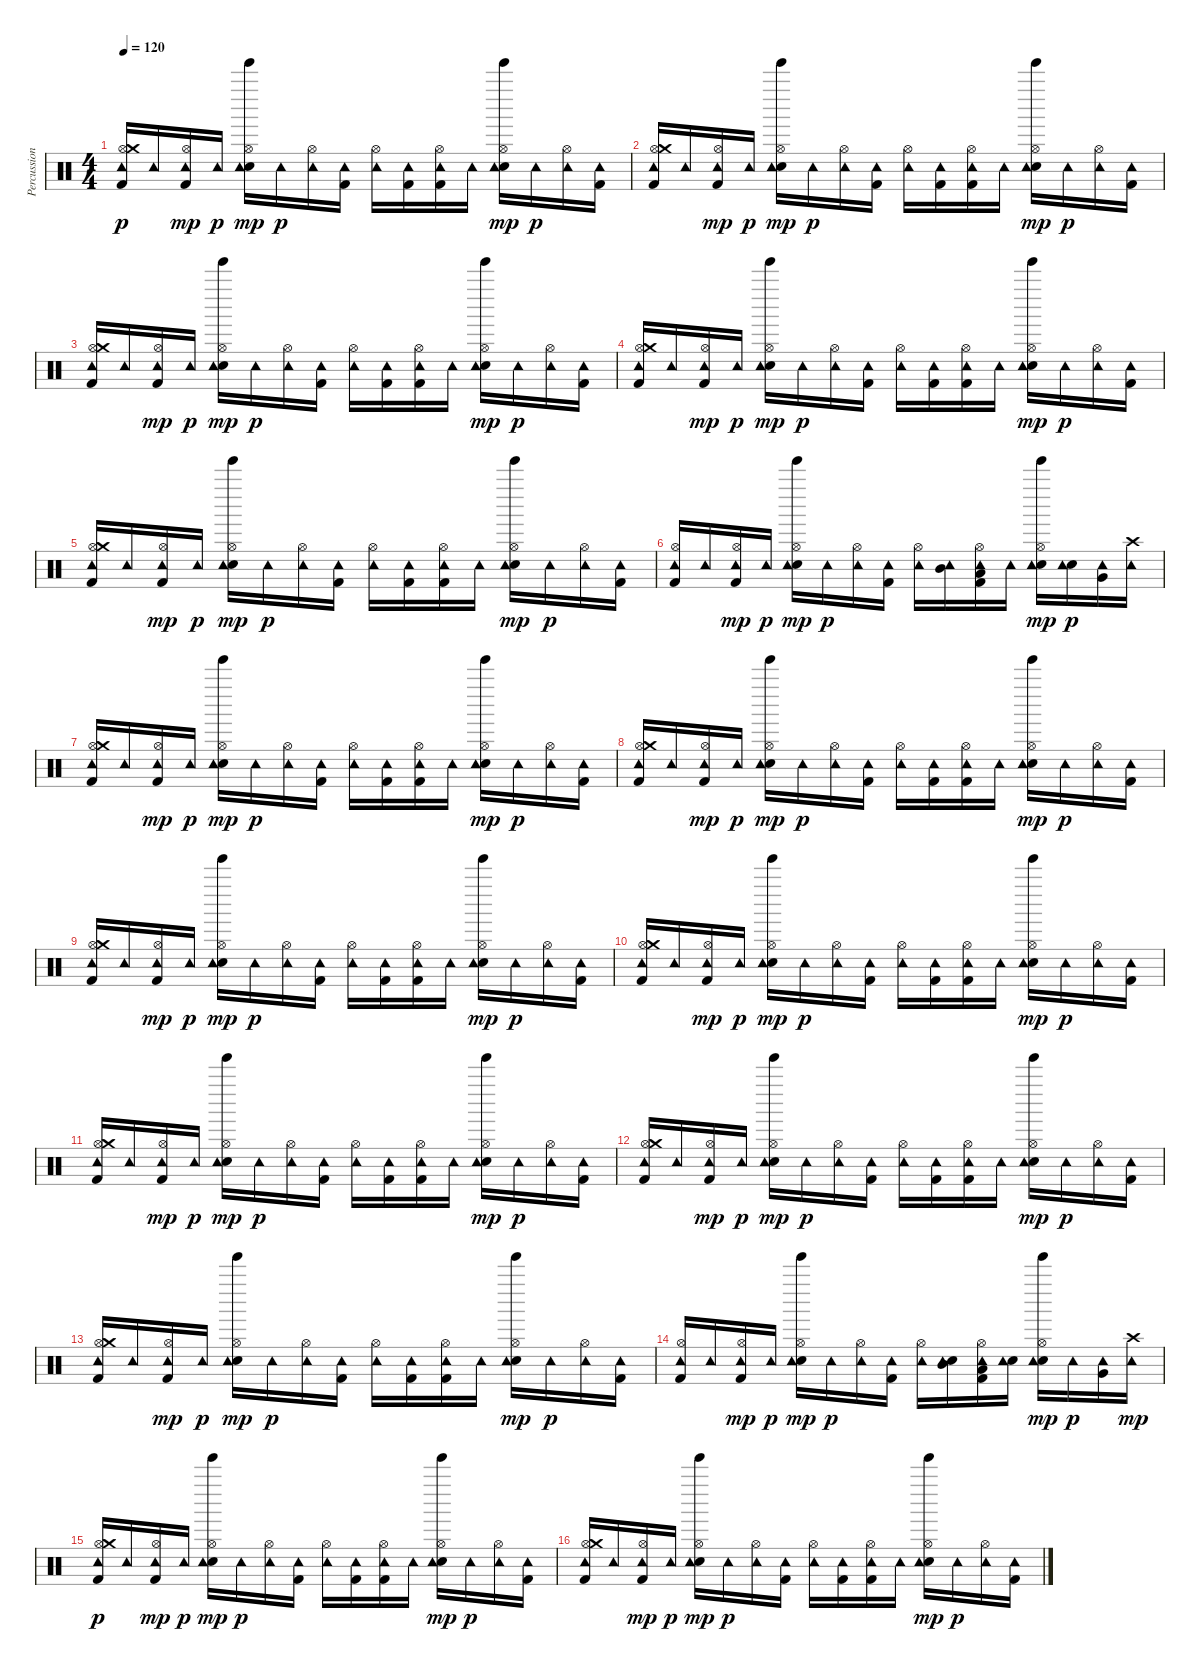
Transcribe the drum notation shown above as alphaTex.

\track ("Percussioni" "Percussion") {instrument percussion}
\staff {score}
\articulation defaults
\ts (4 4)
\tempo 120
\clef neutral
\ks c
("Kick (hit) 2" "Hi-Hat (open)" "Crash medium (hit)" "Tambourine (hit)").16{dy p} "Tambourine (hit)".16 ("Kick (hit) 2" "Hi-Hat (open)" "Tambourine (hit)").16{dy mp} "Tambourine (hit)".16{dy p} ("Electric Snare (hit)" "Hi-Hat (open)" "Tambourine (hit)" "Tinkle Bell (hit)").16{dy mp} "Tambourine (hit)".16{dy p} ("Hi-Hat (open)" "Tambourine (hit)").16 ("Kick (hit) 2" "Tambourine (hit)").16 ("Hi-Hat (open)" "Tambourine (hit)").16 ("Kick (hit) 2" "Tambourine (hit)").16 ("Kick (hit) 2" "Hi-Hat (open)" "Tambourine (hit)").16 "Tambourine (hit)".16 ("Electric Snare (hit)" "Hi-Hat (open)" "Tambourine (hit)" "Tinkle Bell (hit)").16{dy mp} "Tambourine (hit)".16{dy p} ("Hi-Hat (open)" "Tambourine (hit)").16 ("Kick (hit) 2" "Tambourine (hit)").16 |
("Kick (hit) 2" "Hi-Hat (open)" "Crash medium (hit)" "Tambourine (hit)").16 "Tambourine (hit)".16 ("Kick (hit) 2" "Hi-Hat (open)" "Tambourine (hit)").16{dy mp} "Tambourine (hit)".16{dy p} ("Electric Snare (hit)" "Hi-Hat (open)" "Tambourine (hit)" "Tinkle Bell (hit)").16{dy mp} "Tambourine (hit)".16{dy p} ("Hi-Hat (open)" "Tambourine (hit)").16 ("Kick (hit) 2" "Tambourine (hit)").16 ("Hi-Hat (open)" "Tambourine (hit)").16 ("Kick (hit) 2" "Tambourine (hit)").16 ("Kick (hit) 2" "Hi-Hat (open)" "Tambourine (hit)").16 "Tambourine (hit)".16 ("Electric Snare (hit)" "Hi-Hat (open)" "Tambourine (hit)" "Tinkle Bell (hit)").16{dy mp} "Tambourine (hit)".16{dy p} ("Hi-Hat (open)" "Tambourine (hit)").16 ("Kick (hit) 2" "Tambourine (hit)").16 |
("Kick (hit) 2" "Hi-Hat (open)" "Crash medium (hit)" "Tambourine (hit)").16 "Tambourine (hit)".16 ("Kick (hit) 2" "Hi-Hat (open)" "Tambourine (hit)").16{dy mp} "Tambourine (hit)".16{dy p} ("Electric Snare (hit)" "Hi-Hat (open)" "Tambourine (hit)" "Tinkle Bell (hit)").16{dy mp} "Tambourine (hit)".16{dy p} ("Hi-Hat (open)" "Tambourine (hit)").16 ("Kick (hit) 2" "Tambourine (hit)").16 ("Hi-Hat (open)" "Tambourine (hit)").16 ("Kick (hit) 2" "Tambourine (hit)").16 ("Kick (hit) 2" "Hi-Hat (open)" "Tambourine (hit)").16 "Tambourine (hit)".16 ("Electric Snare (hit)" "Hi-Hat (open)" "Tambourine (hit)" "Tinkle Bell (hit)").16{dy mp} "Tambourine (hit)".16{dy p} ("Hi-Hat (open)" "Tambourine (hit)").16 ("Kick (hit) 2" "Tambourine (hit)").16 |
("Kick (hit) 2" "Hi-Hat (open)" "Crash medium (hit)" "Tambourine (hit)").16 "Tambourine (hit)".16 ("Kick (hit) 2" "Hi-Hat (open)" "Tambourine (hit)").16{dy mp} "Tambourine (hit)".16{dy p} ("Electric Snare (hit)" "Hi-Hat (open)" "Tambourine (hit)" "Tinkle Bell (hit)").16{dy mp} "Tambourine (hit)".16{dy p} ("Hi-Hat (open)" "Tambourine (hit)").16 ("Kick (hit) 2" "Tambourine (hit)").16 ("Hi-Hat (open)" "Tambourine (hit)").16 ("Kick (hit) 2" "Tambourine (hit)").16 ("Kick (hit) 2" "Hi-Hat (open)" "Tambourine (hit)").16 "Tambourine (hit)".16 ("Electric Snare (hit)" "Hi-Hat (open)" "Tambourine (hit)" "Tinkle Bell (hit)").16{dy mp} "Tambourine (hit)".16{dy p} ("Hi-Hat (open)" "Tambourine (hit)").16 ("Kick (hit) 2" "Tambourine (hit)").16 |
("Kick (hit) 2" "Hi-Hat (open)" "Crash medium (hit)" "Tambourine (hit)").16 "Tambourine (hit)".16 ("Kick (hit) 2" "Hi-Hat (open)" "Tambourine (hit)").16{dy mp} "Tambourine (hit)".16{dy p} ("Electric Snare (hit)" "Hi-Hat (open)" "Tambourine (hit)" "Tinkle Bell (hit)").16{dy mp} "Tambourine (hit)".16{dy p} ("Hi-Hat (open)" "Tambourine (hit)").16 ("Kick (hit) 2" "Tambourine (hit)").16 ("Hi-Hat (open)" "Tambourine (hit)").16 ("Kick (hit) 2" "Tambourine (hit)").16 ("Kick (hit) 2" "Hi-Hat (open)" "Tambourine (hit)").16 "Tambourine (hit)".16 ("Electric Snare (hit)" "Hi-Hat (open)" "Tambourine (hit)" "Tinkle Bell (hit)").16{dy mp} "Tambourine (hit)".16{dy p} ("Hi-Hat (open)" "Tambourine (hit)").16 ("Kick (hit) 2" "Tambourine (hit)").16 |
("Kick (hit) 2" "Hi-Hat (open)" "Tambourine (hit)").16 "Tambourine (hit)".16 ("Kick (hit) 2" "Hi-Hat (open)" "Tambourine (hit)").16{dy mp} "Tambourine (hit)".16{dy p} ("Electric Snare (hit)" "Hi-Hat (open)" "Tambourine (hit)" "Tinkle Bell (hit)").16{dy mp} "Tambourine (hit)".16{dy p} ("Hi-Hat (open)" "Tambourine (hit)").16 ("Kick (hit) 2" "Tambourine (hit)").16 ("Hi-Hat (open)" "Tambourine (hit)").16 ("Mid Tom (hit)" "Tambourine (hit)").16 ("Kick (hit) 2" "Low Tom (hit)" "Hi-Hat (open)" "Tambourine (hit)").16 "Tambourine (hit)".16 ("Electric Snare (hit)" "Hi-Hat (open)" "Tambourine (hit)" "Tinkle Bell (hit)").16{dy mp} ("Electric Snare (hit)" "Tambourine (hit)").16{dy p} ("Very Low Tom (hit)" "Tambourine (hit)").16 ("Crash high (hit)" "Tambourine (hit)").16 |
("Kick (hit) 2" "Hi-Hat (open)" "Crash medium (hit)" "Tambourine (hit)").16 "Tambourine (hit)".16 ("Kick (hit) 2" "Hi-Hat (open)" "Tambourine (hit)").16{dy mp} "Tambourine (hit)".16{dy p} ("Electric Snare (hit)" "Hi-Hat (open)" "Tambourine (hit)" "Tinkle Bell (hit)").16{dy mp} "Tambourine (hit)".16{dy p} ("Hi-Hat (open)" "Tambourine (hit)").16 ("Kick (hit) 2" "Tambourine (hit)").16 ("Hi-Hat (open)" "Tambourine (hit)").16 ("Kick (hit) 2" "Tambourine (hit)").16 ("Kick (hit) 2" "Hi-Hat (open)" "Tambourine (hit)").16 "Tambourine (hit)".16 ("Electric Snare (hit)" "Hi-Hat (open)" "Tambourine (hit)" "Tinkle Bell (hit)").16{dy mp} "Tambourine (hit)".16{dy p} ("Hi-Hat (open)" "Tambourine (hit)").16 ("Kick (hit) 2" "Tambourine (hit)").16 |
("Kick (hit) 2" "Hi-Hat (open)" "Crash medium (hit)" "Tambourine (hit)").16 "Tambourine (hit)".16 ("Kick (hit) 2" "Hi-Hat (open)" "Tambourine (hit)").16{dy mp} "Tambourine (hit)".16{dy p} ("Electric Snare (hit)" "Hi-Hat (open)" "Tambourine (hit)" "Tinkle Bell (hit)").16{dy mp} "Tambourine (hit)".16{dy p} ("Hi-Hat (open)" "Tambourine (hit)").16 ("Kick (hit) 2" "Tambourine (hit)").16 ("Hi-Hat (open)" "Tambourine (hit)").16 ("Kick (hit) 2" "Tambourine (hit)").16 ("Kick (hit) 2" "Hi-Hat (open)" "Tambourine (hit)").16 "Tambourine (hit)".16 ("Electric Snare (hit)" "Hi-Hat (open)" "Tambourine (hit)" "Tinkle Bell (hit)").16{dy mp} "Tambourine (hit)".16{dy p} ("Hi-Hat (open)" "Tambourine (hit)").16 ("Kick (hit) 2" "Tambourine (hit)").16 |
("Kick (hit) 2" "Hi-Hat (open)" "Crash medium (hit)" "Tambourine (hit)").16 "Tambourine (hit)".16 ("Kick (hit) 2" "Hi-Hat (open)" "Tambourine (hit)").16{dy mp} "Tambourine (hit)".16{dy p} ("Electric Snare (hit)" "Hi-Hat (open)" "Tambourine (hit)" "Tinkle Bell (hit)").16{dy mp} "Tambourine (hit)".16{dy p} ("Hi-Hat (open)" "Tambourine (hit)").16 ("Kick (hit) 2" "Tambourine (hit)").16 ("Hi-Hat (open)" "Tambourine (hit)").16 ("Kick (hit) 2" "Tambourine (hit)").16 ("Kick (hit) 2" "Hi-Hat (open)" "Tambourine (hit)").16 "Tambourine (hit)".16 ("Electric Snare (hit)" "Hi-Hat (open)" "Tambourine (hit)" "Tinkle Bell (hit)").16{dy mp} "Tambourine (hit)".16{dy p} ("Hi-Hat (open)" "Tambourine (hit)").16 ("Kick (hit) 2" "Tambourine (hit)").16 |
("Kick (hit) 2" "Hi-Hat (open)" "Crash medium (hit)" "Tambourine (hit)").16 "Tambourine (hit)".16 ("Kick (hit) 2" "Hi-Hat (open)" "Tambourine (hit)").16{dy mp} "Tambourine (hit)".16{dy p} ("Electric Snare (hit)" "Hi-Hat (open)" "Tambourine (hit)" "Tinkle Bell (hit)").16{dy mp} "Tambourine (hit)".16{dy p} ("Hi-Hat (open)" "Tambourine (hit)").16 ("Kick (hit) 2" "Tambourine (hit)").16 ("Hi-Hat (open)" "Tambourine (hit)").16 ("Kick (hit) 2" "Tambourine (hit)").16 ("Kick (hit) 2" "Hi-Hat (open)" "Tambourine (hit)").16 "Tambourine (hit)".16 ("Electric Snare (hit)" "Hi-Hat (open)" "Tambourine (hit)" "Tinkle Bell (hit)").16{dy mp} "Tambourine (hit)".16{dy p} ("Hi-Hat (open)" "Tambourine (hit)").16 ("Kick (hit) 2" "Tambourine (hit)").16 |
("Kick (hit) 2" "Hi-Hat (open)" "Crash medium (hit)" "Tambourine (hit)").16 "Tambourine (hit)".16 ("Kick (hit) 2" "Hi-Hat (open)" "Tambourine (hit)").16{dy mp} "Tambourine (hit)".16{dy p} ("Electric Snare (hit)" "Hi-Hat (open)" "Tambourine (hit)" "Tinkle Bell (hit)").16{dy mp} "Tambourine (hit)".16{dy p} ("Hi-Hat (open)" "Tambourine (hit)").16 ("Kick (hit) 2" "Tambourine (hit)").16 ("Hi-Hat (open)" "Tambourine (hit)").16 ("Kick (hit) 2" "Tambourine (hit)").16 ("Kick (hit) 2" "Hi-Hat (open)" "Tambourine (hit)").16 "Tambourine (hit)".16 ("Electric Snare (hit)" "Hi-Hat (open)" "Tambourine (hit)" "Tinkle Bell (hit)").16{dy mp} "Tambourine (hit)".16{dy p} ("Hi-Hat (open)" "Tambourine (hit)").16 ("Kick (hit) 2" "Tambourine (hit)").16 |
("Kick (hit) 2" "Hi-Hat (open)" "Crash medium (hit)" "Tambourine (hit)").16 "Tambourine (hit)".16 ("Kick (hit) 2" "Hi-Hat (open)" "Tambourine (hit)").16{dy mp} "Tambourine (hit)".16{dy p} ("Electric Snare (hit)" "Hi-Hat (open)" "Tambourine (hit)" "Tinkle Bell (hit)").16{dy mp} "Tambourine (hit)".16{dy p} ("Hi-Hat (open)" "Tambourine (hit)").16 ("Kick (hit) 2" "Tambourine (hit)").16 ("Hi-Hat (open)" "Tambourine (hit)").16 ("Kick (hit) 2" "Tambourine (hit)").16 ("Kick (hit) 2" "Hi-Hat (open)" "Tambourine (hit)").16 "Tambourine (hit)".16 ("Electric Snare (hit)" "Hi-Hat (open)" "Tambourine (hit)" "Tinkle Bell (hit)").16{dy mp} "Tambourine (hit)".16{dy p} ("Hi-Hat (open)" "Tambourine (hit)").16 ("Kick (hit) 2" "Tambourine (hit)").16 |
("Kick (hit) 2" "Hi-Hat (open)" "Crash medium (hit)" "Tambourine (hit)").16 "Tambourine (hit)".16 ("Kick (hit) 2" "Hi-Hat (open)" "Tambourine (hit)").16{dy mp} "Tambourine (hit)".16{dy p} ("Electric Snare (hit)" "Hi-Hat (open)" "Tambourine (hit)" "Tinkle Bell (hit)").16{dy mp} "Tambourine (hit)".16{dy p} ("Hi-Hat (open)" "Tambourine (hit)").16 ("Kick (hit) 2" "Tambourine (hit)").16 ("Hi-Hat (open)" "Tambourine (hit)").16 ("Kick (hit) 2" "Tambourine (hit)").16 ("Kick (hit) 2" "Hi-Hat (open)" "Tambourine (hit)").16 "Tambourine (hit)".16 ("Electric Snare (hit)" "Hi-Hat (open)" "Tambourine (hit)" "Tinkle Bell (hit)").16{dy mp} "Tambourine (hit)".16{dy p} ("Hi-Hat (open)" "Tambourine (hit)").16 ("Kick (hit) 2" "Tambourine (hit)").16 |
("Kick (hit) 2" "Hi-Hat (open)" "Tambourine (hit)").16 "Tambourine (hit)".16 ("Kick (hit) 2" "Hi-Hat (open)" "Tambourine (hit)").16{dy mp} "Tambourine (hit)".16{dy p} ("Electric Snare (hit)" "Hi-Hat (open)" "Tambourine (hit)" "Tinkle Bell (hit)").16{dy mp} "Tambourine (hit)".16{dy p} ("Hi-Hat (open)" "Tambourine (hit)").16 ("Kick (hit) 2" "Tambourine (hit)").16 ("Hi-Hat (open)" "Tambourine (hit)").16 ("Electric Snare (hit)" "Mid Tom (hit)" "Tambourine (hit)").16 ("Kick (hit) 2" "Low Tom (hit)" "Hi-Hat (open)" "Tambourine (hit)").16 ("Electric Snare (hit)" "Tambourine (hit)").16 ("Electric Snare (hit)" "Hi-Hat (open)" "Tambourine (hit)" "Tinkle Bell (hit)").16{dy mp} "Tambourine (hit)".16{dy p} ("Very Low Tom (hit)" "Tambourine (hit)").16 ("Crash high (hit)" "Tambourine (hit)").16{dy mp} |
("Kick (hit) 2" "Hi-Hat (open)" "Crash medium (hit)" "Tambourine (hit)").16{dy p} "Tambourine (hit)".16 ("Kick (hit) 2" "Hi-Hat (open)" "Tambourine (hit)").16{dy mp} "Tambourine (hit)".16{dy p} ("Electric Snare (hit)" "Hi-Hat (open)" "Tambourine (hit)" "Tinkle Bell (hit)").16{dy mp} "Tambourine (hit)".16{dy p} ("Hi-Hat (open)" "Tambourine (hit)").16 ("Kick (hit) 2" "Tambourine (hit)").16 ("Hi-Hat (open)" "Tambourine (hit)").16 ("Kick (hit) 2" "Tambourine (hit)").16 ("Kick (hit) 2" "Hi-Hat (open)" "Tambourine (hit)").16 "Tambourine (hit)".16 ("Electric Snare (hit)" "Hi-Hat (open)" "Tambourine (hit)" "Tinkle Bell (hit)").16{dy mp} "Tambourine (hit)".16{dy p} ("Hi-Hat (open)" "Tambourine (hit)").16 ("Kick (hit) 2" "Tambourine (hit)").16 |
("Kick (hit) 2" "Hi-Hat (open)" "Crash medium (hit)" "Tambourine (hit)").16 "Tambourine (hit)".16 ("Kick (hit) 2" "Hi-Hat (open)" "Tambourine (hit)").16{dy mp} "Tambourine (hit)".16{dy p} ("Electric Snare (hit)" "Hi-Hat (open)" "Tambourine (hit)" "Tinkle Bell (hit)").16{dy mp} "Tambourine (hit)".16{dy p} ("Hi-Hat (open)" "Tambourine (hit)").16 ("Kick (hit) 2" "Tambourine (hit)").16 ("Hi-Hat (open)" "Tambourine (hit)").16 ("Kick (hit) 2" "Tambourine (hit)").16 ("Kick (hit) 2" "Hi-Hat (open)" "Tambourine (hit)").16 "Tambourine (hit)".16 ("Electric Snare (hit)" "Hi-Hat (open)" "Tambourine (hit)" "Tinkle Bell (hit)").16{dy mp} "Tambourine (hit)".16{dy p} ("Hi-Hat (open)" "Tambourine (hit)").16 ("Kick (hit) 2" "Tambourine (hit)").16
